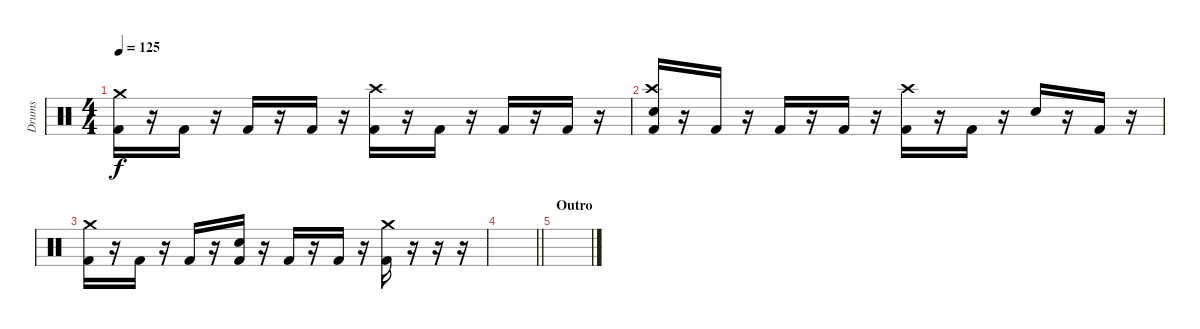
\track ("Drums" "Drums") {instrument percussion}
\staff {score}
\articulation defaults
\ts (4 4)
\tempo 125
\clef neutral
\ks c
("Crash medium (hit)" "Kick (hit) 2").16{dy f} r.16 "Kick (hit) 2".16 r.16 "Kick (hit) 2".16 r.16 "Kick (hit) 2".16 r.16 ("Crash high (hit)" "Kick (hit) 2").16 r.16 "Kick (hit) 2".16 r.16 "Kick (hit) 2".16 r.16 "Kick (hit) 2".16 r.16 |
("Crash high (hit)" "Electric Snare (hit)" "Kick (hit) 2").16 r.16 "Kick (hit) 2".16 r.16 "Kick (hit) 2".16 r.16 "Kick (hit) 2".16 r.16 ("Crash high (hit)" "Kick (hit) 2").16 r.16 "Kick (hit) 2".16 r.16 "Electric Snare (hit)".16 r.16 "Kick (hit) 2".16 r.16 |
("Crash medium (hit)" "Kick (hit) 2").16 r.16 "Kick (hit) 2".16 r.16 "Kick (hit) 2".16 r.16 ("Electric Snare (hit)" "Kick (hit) 2").16 r.16 "Kick (hit) 2".16 r.16 "Kick (hit) 2".16 r.16 ("Crash medium (hit)" "Kick (hit) 2").16 r.16 r.16 r.16 |
\barLineRight lightlight
|
\section ("" "Outro")
